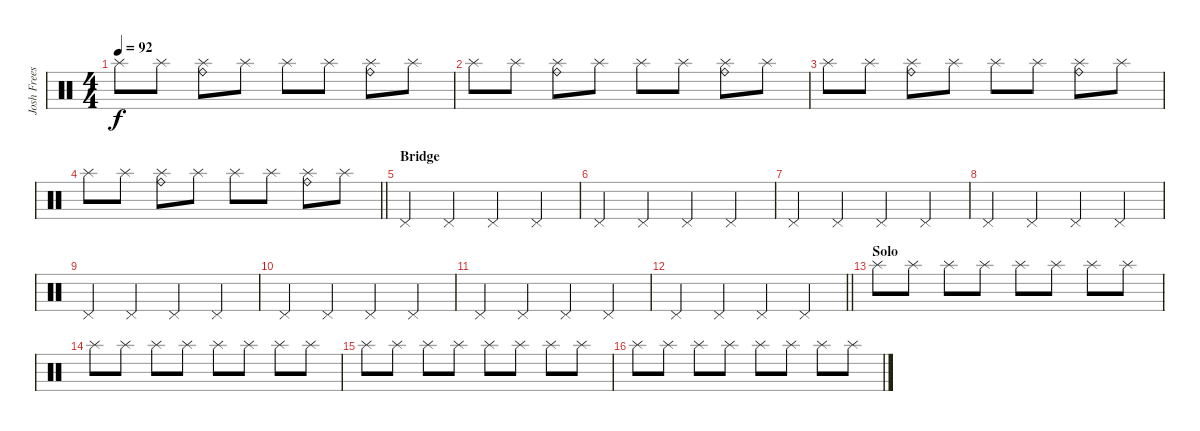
\track ("Josh Freese (Studio Drummer)" "Josh Frees") {instrument percussion}
\staff {score}
\articulation defaults
\ts (4 4)
\tempo 92
\clef neutral
\ks c "Splash (hit)".8{dy f} "Splash (hit)".8
("Splash (hit)" "Ride (bell)").8 "Splash (hit)".8 "Splash (hit)".8 "Splash (hit)".8 ("Splash (hit)" "Ride (bell)").8 "Splash (hit)".8 |
"Splash (hit)".8 "Splash (hit)".8 ("Splash (hit)" "Ride (bell)").8 "Splash (hit)".8 "Splash (hit)".8 "Splash (hit)".8 ("Splash (hit)" "Ride (bell)").8 "Splash (hit)".8 |
"Splash (hit)".8 "Splash (hit)".8 ("Splash (hit)" "Ride (bell)").8 "Splash (hit)".8 "Splash (hit)".8 "Splash (hit)".8 ("Splash (hit)" "Ride (bell)").8 "Splash (hit)".8 |
\barLineRight lightlight "Splash (hit)".8 "Splash (hit)".8
("Splash (hit)" "Ride (bell)").8 "Splash (hit)".8 "Splash (hit)".8 "Splash (hit)".8 ("Splash (hit)" "Ride (bell)").8 "Splash (hit)".8 |
\section ("" "Bridge")
"Pedal Hi-Hat (hit)".4 "Pedal Hi-Hat (hit)".4 "Pedal Hi-Hat (hit)".4 "Pedal Hi-Hat (hit)".4 |
"Pedal Hi-Hat (hit)".4 "Pedal Hi-Hat (hit)".4 "Pedal Hi-Hat (hit)".4 "Pedal Hi-Hat (hit)".4 |
"Pedal Hi-Hat (hit)".4 "Pedal Hi-Hat (hit)".4 "Pedal Hi-Hat (hit)".4 "Pedal Hi-Hat (hit)".4 |
"Pedal Hi-Hat (hit)".4 "Pedal Hi-Hat (hit)".4 "Pedal Hi-Hat (hit)".4 "Pedal Hi-Hat (hit)".4 |
"Pedal Hi-Hat (hit)".4 "Pedal Hi-Hat (hit)".4 "Pedal Hi-Hat (hit)".4 "Pedal Hi-Hat (hit)".4 |
"Pedal Hi-Hat (hit)".4 "Pedal Hi-Hat (hit)".4 "Pedal Hi-Hat (hit)".4 "Pedal Hi-Hat (hit)".4 |
"Pedal Hi-Hat (hit)".4 "Pedal Hi-Hat (hit)".4 "Pedal Hi-Hat (hit)".4 "Pedal Hi-Hat (hit)".4 |
\barLineRight lightlight "Pedal Hi-Hat (hit)".4 "Pedal Hi-Hat (hit)".4 "Pedal Hi-Hat (hit)".4 "Pedal Hi-Hat (hit)".4
|
\section ("" "Solo")
"Splash (hit)".8 "Splash (hit)".8 "Splash (hit)".8 "Splash (hit)".8 "Splash (hit)".8 "Splash (hit)".8 "Splash (hit)".8 "Splash (hit)".8 |
"Splash (hit)".8 "Splash (hit)".8 "Splash (hit)".8 "Splash (hit)".8 "Splash (hit)".8 "Splash (hit)".8 "Splash (hit)".8 "Splash (hit)".8 |
"Splash (hit)".8 "Splash (hit)".8 "Splash (hit)".8 "Splash (hit)".8 "Splash (hit)".8 "Splash (hit)".8 "Splash (hit)".8 "Splash (hit)".8 |
"Splash (hit)".8 "Splash (hit)".8 "Splash (hit)".8 "Splash (hit)".8 "Splash (hit)".8 "Splash (hit)".8 "Splash (hit)".8 "Splash (hit)".8
